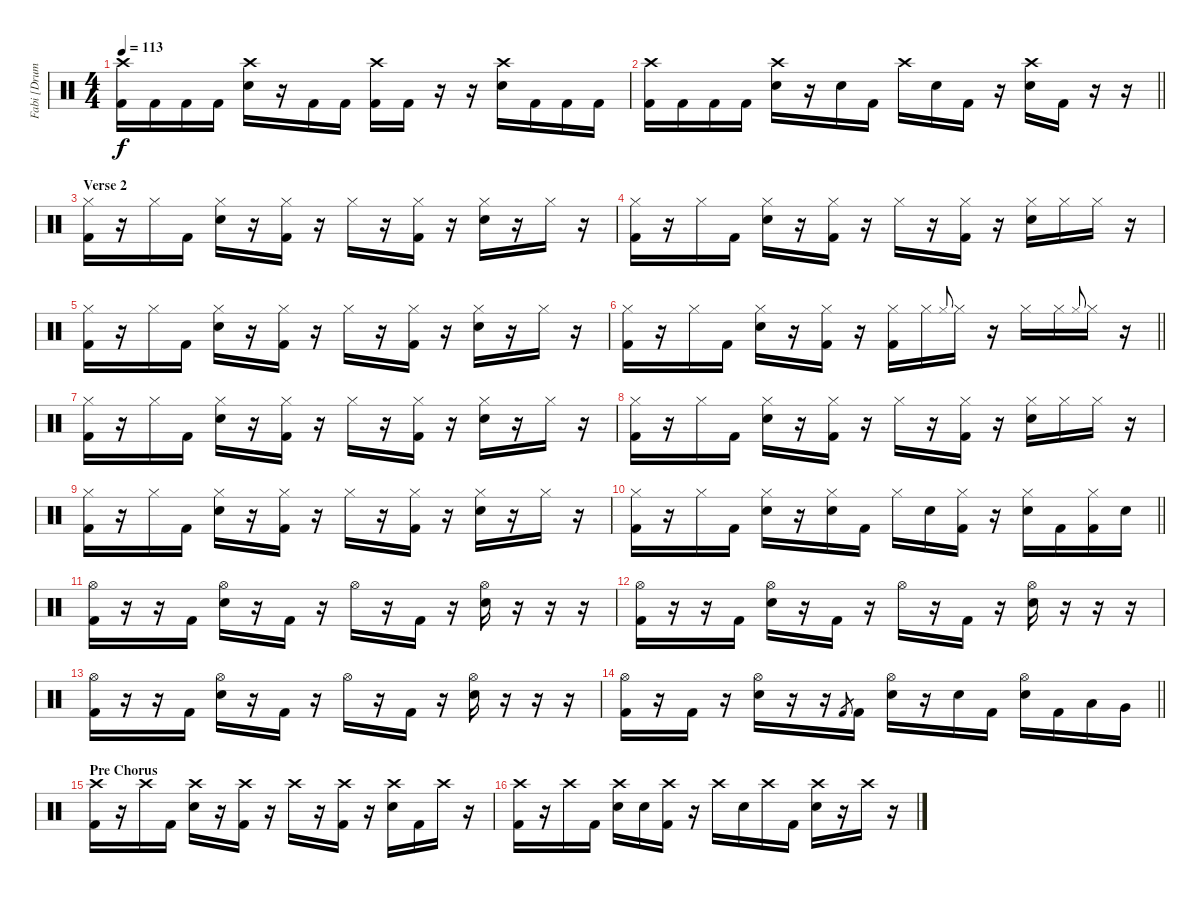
\track ("Fabi [Drums]" "Fabi [Drum") {instrument percussion}
\staff {score}
\articulation defaults
\ts (4 4)
\tempo 113
\clef neutral
\ks c
("Crash high (hit)" "Kick (hit) 2").16{dy f} "Kick (hit) 2".16 "Kick (hit) 2".16 "Kick (hit) 2".16 ("Crash high (hit)" "Electric Snare (hit)").16 r.16 "Kick (hit) 2".16 "Kick (hit) 2".16 ("Crash high (hit)" "Kick (hit) 2").16 "Kick (hit) 2".16 r.16 r.16 ("Crash high (hit)" "Electric Snare (hit)").16 "Kick (hit) 2".16 "Kick (hit) 2".16 "Kick (hit) 2".16 |
\barLineRight lightlight
("Crash high (hit)" "Kick (hit) 2").16 "Kick (hit) 2".16 "Kick (hit) 2".16 "Kick (hit) 2".16 ("Crash high (hit)" "Electric Snare (hit)").16 r.16 "Electric Snare (hit)".16 "Kick (hit) 2".16 "Crash high (hit)".16 "Electric Snare (hit)".16 "Kick (hit) 2".16 r.16 ("Crash high (hit)" "Electric Snare (hit)").16 "Kick (hit) 2".16 r.16 r.16 |
\section ("" "Verse 2")
("Hi-Hat (closed)" "Kick (hit) 2").16 r.16 "Hi-Hat (closed)".16 "Kick (hit) 2".16 ("Hi-Hat (closed)" "Electric Snare (hit)").16 r.16 ("Hi-Hat (closed)" "Kick (hit) 2").16 r.16 "Hi-Hat (closed)".16 r.16 ("Hi-Hat (closed)" "Kick (hit) 2").16 r.16 ("Hi-Hat (closed)" "Electric Snare (hit)").16 r.16 "Hi-Hat (closed)".16 r.16 |
("Hi-Hat (closed)" "Kick (hit) 2").16 r.16 "Hi-Hat (closed)".16 "Kick (hit) 2".16 ("Hi-Hat (closed)" "Electric Snare (hit)").16 r.16 ("Hi-Hat (closed)" "Kick (hit) 2").16 r.16 "Hi-Hat (closed)".16 r.16 ("Hi-Hat (closed)" "Kick (hit) 2").16 r.16 ("Hi-Hat (closed)" "Electric Snare (hit)").16 "Hi-Hat (closed)".16 "Hi-Hat (closed)".16 r.16 |
("Hi-Hat (closed)" "Kick (hit) 2").16 r.16 "Hi-Hat (closed)".16 "Kick (hit) 2".16 ("Hi-Hat (closed)" "Electric Snare (hit)").16 r.16 ("Hi-Hat (closed)" "Kick (hit) 2").16 r.16 "Hi-Hat (closed)".16 r.16 ("Hi-Hat (closed)" "Kick (hit) 2").16 r.16 ("Hi-Hat (closed)" "Electric Snare (hit)").16 r.16 "Hi-Hat (closed)".16 r.16 |
\barLineRight lightlight
("Hi-Hat (closed)" "Kick (hit) 2").16 r.16 "Hi-Hat (closed)".16 "Kick (hit) 2".16 ("Hi-Hat (closed)" "Electric Snare (hit)").16 r.16 ("Hi-Hat (closed)" "Kick (hit) 2").16 r.16 ("Hi-Hat (closed)" "Kick (hit) 2").16 "Hi-Hat (closed)".16 "Hi-Hat (closed)".8{gr onbeat} "Hi-Hat (closed)".16 r.16 "Hi-Hat (closed)".16 "Hi-Hat (closed)".16 "Hi-Hat (closed)".8{gr onbeat} "Hi-Hat (closed)".16 r.16 |
("Hi-Hat (closed)" "Kick (hit) 2").16 r.16 "Hi-Hat (closed)".16 "Kick (hit) 2".16 ("Hi-Hat (closed)" "Electric Snare (hit)").16 r.16 ("Hi-Hat (closed)" "Kick (hit) 2").16 r.16 "Hi-Hat (closed)".16 r.16 ("Hi-Hat (closed)" "Kick (hit) 2").16 r.16 ("Hi-Hat (closed)" "Electric Snare (hit)").16 r.16 "Hi-Hat (closed)".16 r.16 |
("Hi-Hat (closed)" "Kick (hit) 2").16 r.16 "Hi-Hat (closed)".16 "Kick (hit) 2".16 ("Hi-Hat (closed)" "Electric Snare (hit)").16 r.16 ("Hi-Hat (closed)" "Kick (hit) 2").16 r.16 "Hi-Hat (closed)".16 r.16 ("Hi-Hat (closed)" "Kick (hit) 2").16 r.16 ("Hi-Hat (closed)" "Electric Snare (hit)").16 "Hi-Hat (closed)".16 "Hi-Hat (closed)".16 r.16 |
("Hi-Hat (closed)" "Kick (hit) 2").16 r.16 "Hi-Hat (closed)".16 "Kick (hit) 2".16 ("Hi-Hat (closed)" "Electric Snare (hit)").16 r.16 ("Hi-Hat (closed)" "Kick (hit) 2").16 r.16 "Hi-Hat (closed)".16 r.16 ("Hi-Hat (closed)" "Kick (hit) 2").16 r.16 ("Hi-Hat (closed)" "Electric Snare (hit)").16 r.16 "Hi-Hat (closed)".16 r.16 |
\barLineRight lightlight
("Hi-Hat (closed)" "Kick (hit) 2").16 r.16 "Hi-Hat (closed)".16 "Kick (hit) 2".16 ("Hi-Hat (closed)" "Electric Snare (hit)").16 r.16 ("Hi-Hat (closed)" "Electric Snare (hit)").16 "Kick (hit) 2".16 "Hi-Hat (closed)".16 "Electric Snare (hit)".16 ("Hi-Hat (closed)" "Kick (hit) 2").16 r.16 ("Hi-Hat (closed)" "Electric Snare (hit)").16 "Kick (hit) 2".16 ("Hi-Hat (closed)" "Kick (hit) 2").16 "Electric Snare (hit)".16 |
("Hi-Hat (open)" "Kick (hit) 2").16 r.16 r.16 "Kick (hit) 2".16 ("Hi-Hat (open)" "Electric Snare (hit)").16 r.16 "Kick (hit) 2".16 r.16 "Hi-Hat (open)".16 r.16 "Kick (hit) 2".16 r.16 ("Hi-Hat (open)" "Electric Snare (hit)").16 r.16 r.16 r.16 |
("Hi-Hat (open)" "Kick (hit) 2").16 r.16 r.16 "Kick (hit) 2".16 ("Hi-Hat (open)" "Electric Snare (hit)").16 r.16 "Kick (hit) 2".16 r.16 "Hi-Hat (open)".16 r.16 "Kick (hit) 2".16 r.16 ("Hi-Hat (open)" "Electric Snare (hit)").16 r.16 r.16 r.16 |
("Hi-Hat (open)" "Kick (hit) 2").16 r.16 r.16 "Kick (hit) 2".16 ("Hi-Hat (open)" "Electric Snare (hit)").16 r.16 "Kick (hit) 2".16 r.16 "Hi-Hat (open)".16 r.16 "Kick (hit) 2".16 r.16 ("Hi-Hat (open)" "Electric Snare (hit)").16 r.16 r.16 r.16 |
\barLineRight lightlight
("Hi-Hat (open)" "Kick (hit) 2").16 r.16 "Kick (hit) 2".16 r.16 ("Hi-Hat (open)" "Electric Snare (hit)").16 r.16 r.16 "Kick (hit) 2".8{gr} "Kick (hit) 2".16 ("Hi-Hat (open)" "Electric Snare (hit)").16 r.16 "Electric Snare (hit)".16 "Kick (hit) 2".16 ("Hi-Hat (open)" "Electric Snare (hit)").16 "Kick (hit) 2".16 "Low Tom (hit)".16 "Very Low Tom (hit)".16 |
\section ("" "Pre Chorus")
("Crash high (hit)" "Kick (hit) 2").16 r.16 "Crash high (hit)".16 "Kick (hit) 2".16 ("Crash high (hit)" "Electric Snare (hit)").16 r.16 ("Crash high (hit)" "Kick (hit) 2").16 r.16 "Crash high (hit)".16 r.16 ("Crash high (hit)" "Kick (hit) 2").16 r.16 ("Crash high (hit)" "Electric Snare (hit)").16 "Kick (hit) 2".16 "Crash high (hit)".16 r.16 |
("Crash high (hit)" "Kick (hit) 2").16 r.16 "Crash high (hit)".16 "Kick (hit) 2".16 ("Crash high (hit)" "Electric Snare (hit)").16 "Electric Snare (hit)".16 ("Crash high (hit)" "Kick (hit) 2").16 r.16 "Crash high (hit)".16 "Electric Snare (hit)".16 "Crash high (hit)".16 "Kick (hit) 2".16 ("Crash high (hit)" "Electric Snare (hit)").16 r.16 "Crash high (hit)".16 r.16
